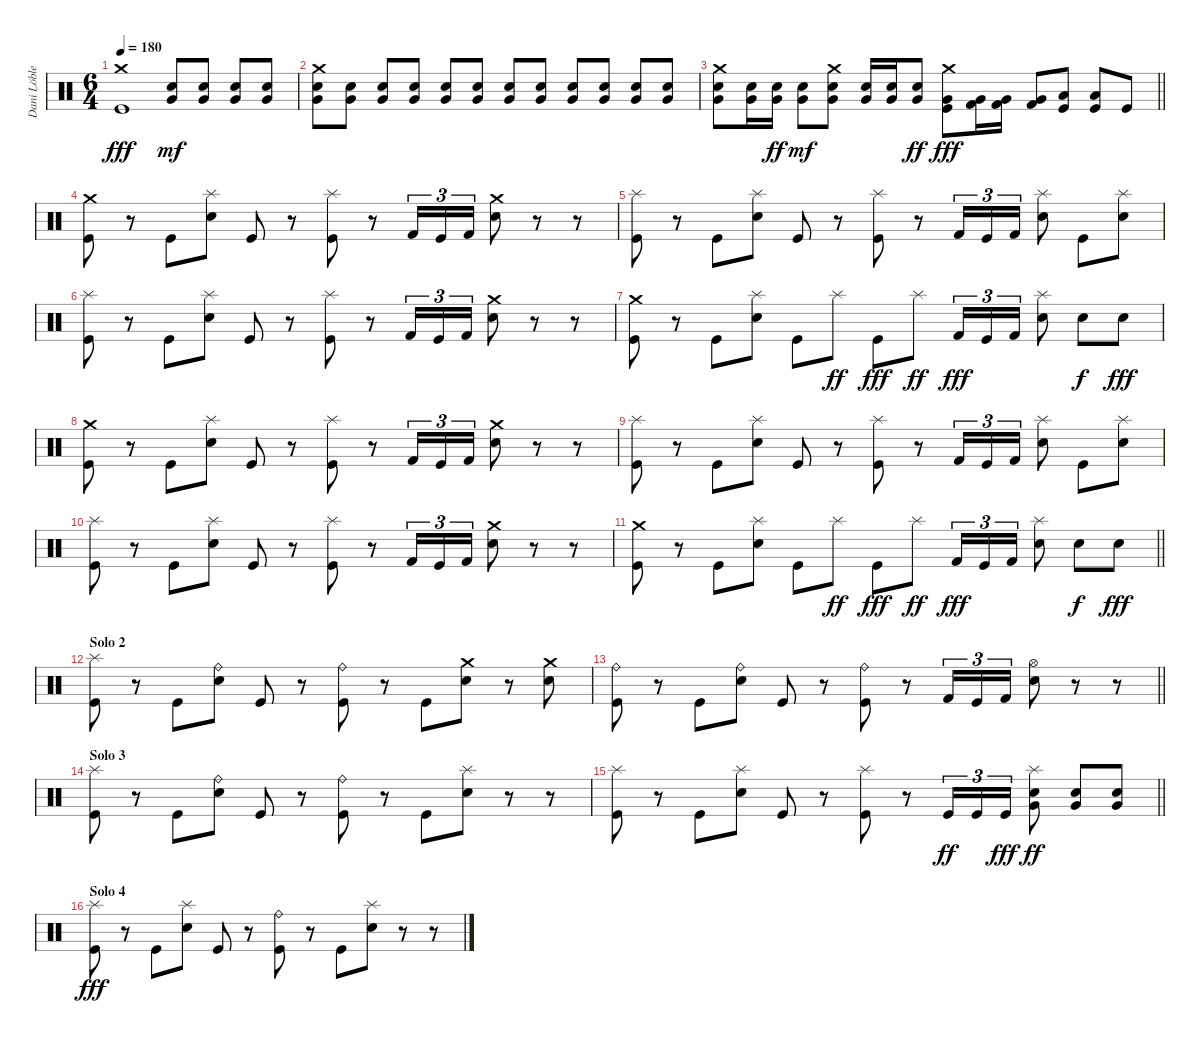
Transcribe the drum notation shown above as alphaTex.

\track ("Dani Löble" "Dani Löble") {instrument percussion}
\staff {score}
\articulation defaults
\ts (6 4)
\tempo 180
\clef neutral
\ks c
("Crash medium (hit)" "Kick (hit)").1{dy fff} ("Electric Snare (hit)" "Very Low Tom (hit)").8{dy mf} ("Electric Snare (hit)" "Very Low Tom (hit)").8 ("Electric Snare (hit)" "Very Low Tom (hit)").8 ("Electric Snare (hit)" "Very Low Tom (hit)").8 |
("Crash medium (hit)" "Electric Snare (hit)" "Very Low Tom (hit)").8 ("Electric Snare (hit)" "Very Low Tom (hit)").8 ("Electric Snare (hit)" "Very Low Tom (hit)").8 ("Electric Snare (hit)" "Very Low Tom (hit)").8 ("Electric Snare (hit)" "Very Low Tom (hit)").8 ("Electric Snare (hit)" "Very Low Tom (hit)").8 ("Electric Snare (hit)" "Very Low Tom (hit)").8 ("Electric Snare (hit)" "Very Low Tom (hit)").8 ("Electric Snare (hit)" "Very Low Tom (hit)").8 ("Electric Snare (hit)" "Very Low Tom (hit)").8 ("Electric Snare (hit)" "Very Low Tom (hit)").8 ("Electric Snare (hit)" "Very Low Tom (hit)").8 |
\barLineRight lightlight
("Crash medium (hit)" "Electric Snare (hit)" "Very Low Tom (hit)").8 ("Electric Snare (hit)" "Very Low Tom (hit)").16 ("Electric Snare (hit)" "Very Low Tom (hit)").16{dy ff} ("Electric Snare (hit)" "Very Low Tom (hit)").8{dy mf} ("Crash medium (hit)" "Electric Snare (hit)" "Very Low Tom (hit)").8 ("Electric Snare (hit)" "Very Low Tom (hit)").16 ("Electric Snare (hit)" "Very Low Tom (hit)").16 ("Electric Snare (hit)" "Very Low Tom (hit)").8{dy ff} ("Crash medium (hit)" "Very Low Tom (hit)" "Kick (hit)").8{dy fff} ("Very Low Tom (hit)" "Kick (hit) 2").16 ("Very Low Tom (hit)" "Kick (hit) 2").16 ("Very Low Tom (hit)" "Kick (hit) 2").8 ("Low Floor Tom (hit)" "Kick (hit)").8 ("Low Floor Tom (hit)" "Kick (hit)").8 "Kick (hit)".8 |
\section ("" "")
("Crash medium (hit)" "Kick (hit)").8 r.8 "Kick (hit)".8 ("Splash (hit)" "Electric Snare (hit)").8 "Kick (hit)".8 r.8 ("Splash (hit)" "Kick (hit)").8 r.8 "Kick (hit) 2".16{tu (3 2)} "Kick (hit)".16{tu (3 2)} "Kick (hit) 2".16{tu (3 2)} ("Crash medium (hit)" "Electric Snare (hit)").8 r.8 r.8 |
("Splash (hit)" "Kick (hit)").8 r.8 "Kick (hit)".8 ("Splash (hit)" "Electric Snare (hit)").8 "Kick (hit)".8 r.8 ("Splash (hit)" "Kick (hit)").8 r.8 "Kick (hit) 2".16{tu (3 2)} "Kick (hit)".16{tu (3 2)} "Kick (hit) 2".16{tu (3 2)} ("Splash (hit)" "Electric Snare (hit)").8 "Kick (hit)".8 ("Splash (hit)" "Electric Snare (hit)").8 |
("Splash (hit)" "Kick (hit)").8 r.8 "Kick (hit)".8 ("Splash (hit)" "Electric Snare (hit)").8 "Kick (hit)".8 r.8 ("Splash (hit)" "Kick (hit)").8 r.8 "Kick (hit) 2".16{tu (3 2)} "Kick (hit)".16{tu (3 2)} "Kick (hit) 2".16{tu (3 2)} ("Crash medium (hit)" "Electric Snare (hit)").8 r.8 r.8 |
("Crash medium (hit)" "Kick (hit)").8 r.8 "Kick (hit)".8 ("Splash (hit)" "Electric Snare (hit)").8 "Kick (hit)".8 "Splash (hit)".8{dy ff} "Kick (hit)".8{dy fff} "Splash (hit)".8{dy ff} "Kick (hit) 2".16{tu (3 2) dy fff} "Kick (hit)".16{tu (3 2)} "Kick (hit) 2".16{tu (3 2)} ("Splash (hit)" "Electric Snare (hit)").8 "Electric Snare (hit)".8{dy f} "Electric Snare (hit)".8{dy fff} |
("Crash medium (hit)" "Kick (hit)").8 r.8 "Kick (hit)".8 ("Splash (hit)" "Electric Snare (hit)").8 "Kick (hit)".8 r.8 ("Splash (hit)" "Kick (hit)").8 r.8 "Kick (hit) 2".16{tu (3 2)} "Kick (hit)".16{tu (3 2)} "Kick (hit) 2".16{tu (3 2)} ("Crash medium (hit)" "Electric Snare (hit)").8 r.8 r.8 |
("Splash (hit)" "Kick (hit)").8 r.8 "Kick (hit)".8 ("Splash (hit)" "Electric Snare (hit)").8 "Kick (hit)".8 r.8 ("Splash (hit)" "Kick (hit)").8 r.8 "Kick (hit) 2".16{tu (3 2)} "Kick (hit)".16{tu (3 2)} "Kick (hit) 2".16{tu (3 2)} ("Splash (hit)" "Electric Snare (hit)").8 "Kick (hit)".8 ("Splash (hit)" "Electric Snare (hit)").8 |
("Splash (hit)" "Kick (hit)").8 r.8 "Kick (hit)".8 ("Splash (hit)" "Electric Snare (hit)").8 "Kick (hit)".8 r.8 ("Splash (hit)" "Kick (hit)").8 r.8 "Kick (hit) 2".16{tu (3 2)} "Kick (hit)".16{tu (3 2)} "Kick (hit) 2".16{tu (3 2)} ("Crash medium (hit)" "Electric Snare (hit)").8 r.8 r.8 |
\barLineRight lightlight
("Crash medium (hit)" "Kick (hit)").8 r.8 "Kick (hit)".8 ("Splash (hit)" "Electric Snare (hit)").8 "Kick (hit)".8 "Splash (hit)".8{dy ff} "Kick (hit)".8{dy fff} "Splash (hit)".8{dy ff} "Kick (hit) 2".16{tu (3 2) dy fff} "Kick (hit)".16{tu (3 2)} "Kick (hit) 2".16{tu (3 2)} ("Splash (hit)" "Electric Snare (hit)").8 "Electric Snare (hit)".8{dy f} "Electric Snare (hit)".8{dy fff} |
\section ("" "Solo 2")
("Splash (hit)" "Kick (hit)").8 r.8 "Kick (hit)".8 ("Ride (bell)" "Electric Snare (hit)").8 "Kick (hit)".8 r.8 ("Ride (bell)" "Kick (hit)").8 r.8 "Kick (hit)".8 ("Crash medium (hit)" "Electric Snare (hit)").8 r.8 ("Crash medium (hit)" "Electric Snare (hit)").8 |
\barLineRight lightlight
("Ride (bell)" "Kick (hit)").8 r.8 "Kick (hit)".8 ("Ride (bell)" "Electric Snare (hit)").8 "Kick (hit)".8 r.8 ("Ride (bell)" "Kick (hit)").8 r.8 "Kick (hit) 2".16{tu (3 2)} "Kick (hit)".16{tu (3 2)} "Kick (hit) 2".16{tu (3 2)} ("Hi-Hat (open)" "Electric Snare (hit)").8 r.8 r.8 |
\section ("" "Solo 3")
("Splash (hit)" "Kick (hit)").8 r.8 "Kick (hit)".8 ("Ride (bell)" "Electric Snare (hit)").8 "Kick (hit)".8 r.8 ("Ride (bell)" "Kick (hit)").8 r.8 "Kick (hit)".8 ("Splash (hit)" "Electric Snare (hit)").8 r.8 r.8 |
\barLineRight lightlight
("Splash (hit)" "Kick (hit)").8 r.8 "Kick (hit)".8 ("Splash (hit)" "Electric Snare (hit)").8 "Kick (hit)".8 r.8 ("Splash (hit)" "Kick (hit)").8 r.8 "Kick (hit)".16{tu (3 2) dy ff} "Kick (hit)".16{tu (3 2)} "Kick (hit)".16{tu (3 2) dy fff} ("Splash (hit)" "Electric Snare (hit)" "Very Low Tom (hit)").8{dy ff} ("Electric Snare (hit)" "Very Low Tom (hit)").8 ("Electric Snare (hit)" "Very Low Tom (hit)").8 |
\section ("" "Solo 4")
("Splash (hit)" "Kick (hit)").8{dy fff} r.8 "Kick (hit)".8 ("Splash (hit)" "Electric Snare (hit)").8 "Kick (hit)".8 r.8 ("Ride (bell)" "Kick (hit)").8 r.8 "Kick (hit)".8 ("Splash (hit)" "Electric Snare (hit)").8 r.8 r.8
